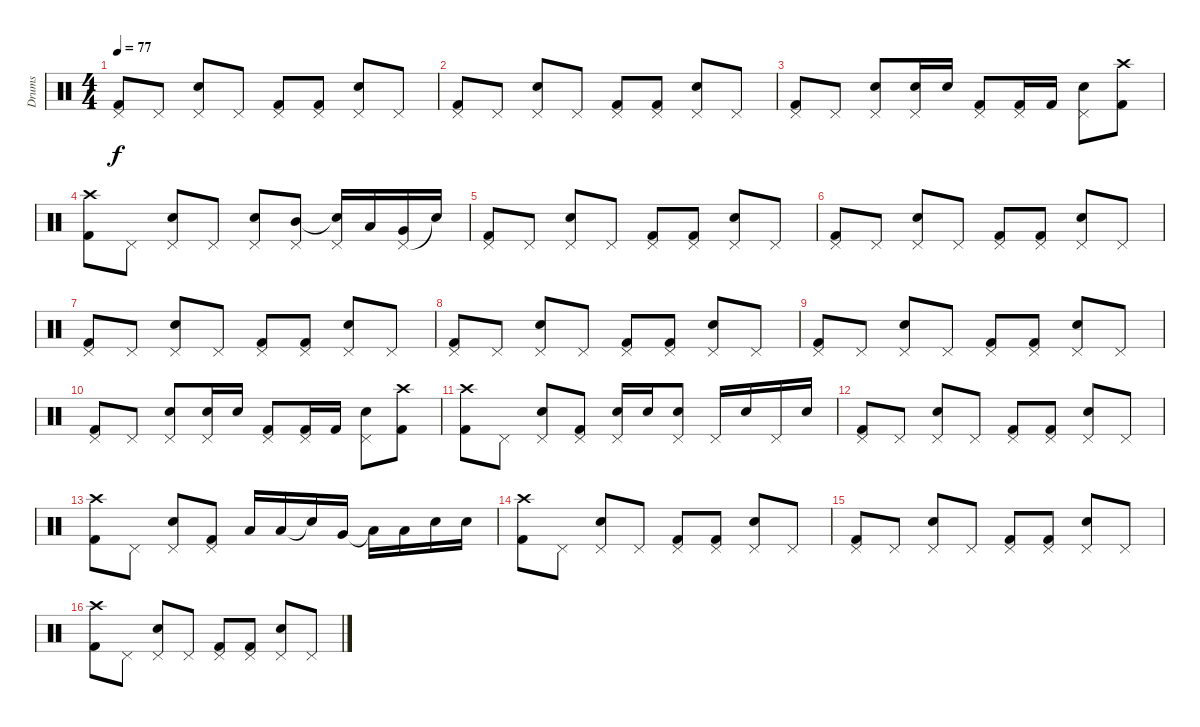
\track ("Drums" "Drums") {instrument percussion}
\staff {score}
\articulation defaults
\ts (4 4)
\tempo 77
\clef neutral
\ks c
("Pedal Hi-Hat (hit)" "Kick (hit) 2").8{dy f} "Pedal Hi-Hat (hit)".8 ("Pedal Hi-Hat (hit)" "Electric Snare (hit)").8 "Pedal Hi-Hat (hit)".8 ("Pedal Hi-Hat (hit)" "Kick (hit) 2").8 ("Pedal Hi-Hat (hit)" "Kick (hit) 2").8 ("Pedal Hi-Hat (hit)" "Electric Snare (hit)").8 "Pedal Hi-Hat (hit)".8 |
("Pedal Hi-Hat (hit)" "Kick (hit) 2").8 "Pedal Hi-Hat (hit)".8 ("Pedal Hi-Hat (hit)" "Electric Snare (hit)").8 "Pedal Hi-Hat (hit)".8 ("Pedal Hi-Hat (hit)" "Kick (hit) 2").8 ("Pedal Hi-Hat (hit)" "Kick (hit) 2").8 ("Pedal Hi-Hat (hit)" "Electric Snare (hit)").8 "Pedal Hi-Hat (hit)".8 |
("Pedal Hi-Hat (hit)" "Kick (hit) 2").8 "Pedal Hi-Hat (hit)".8 ("Pedal Hi-Hat (hit)" "Electric Snare (hit)").8 ("Pedal Hi-Hat (hit)" "Electric Snare (hit)").16 "Electric Snare (hit)".16 ("Pedal Hi-Hat (hit)" "Kick (hit) 2").8 ("Pedal Hi-Hat (hit)" "Kick (hit) 2").16 "Kick (hit) 2".16 ("Pedal Hi-Hat (hit)" "Electric Snare (hit)").8 ("Crash high (hit)" "Kick (hit) 2").8 |
("Crash high (hit)" "Kick (hit) 2").8 "Pedal Hi-Hat (hit)".8 ("Pedal Hi-Hat (hit)" "Electric Snare (hit)").8 "Pedal Hi-Hat (hit)".8 ("Pedal Hi-Hat (hit)" "Electric Snare (hit)").8 ("Pedal Hi-Hat (hit)" "Mid Tom (hit)").8 ("Pedal Hi-Hat (hit)" "Snare (hit)"{t}).16 "Low Tom (hit)".16 ("Pedal Hi-Hat (hit)" "Very Low Tom (hit)").16 "Snare (hit)"{t}.16 |
("Pedal Hi-Hat (hit)" "Kick (hit) 2").8 "Pedal Hi-Hat (hit)".8 ("Pedal Hi-Hat (hit)" "Electric Snare (hit)").8 "Pedal Hi-Hat (hit)".8 ("Pedal Hi-Hat (hit)" "Kick (hit) 2").8 ("Pedal Hi-Hat (hit)" "Kick (hit) 2").8 ("Pedal Hi-Hat (hit)" "Electric Snare (hit)").8 "Pedal Hi-Hat (hit)".8 |
("Pedal Hi-Hat (hit)" "Kick (hit) 2").8 "Pedal Hi-Hat (hit)".8 ("Pedal Hi-Hat (hit)" "Electric Snare (hit)").8 "Pedal Hi-Hat (hit)".8 ("Pedal Hi-Hat (hit)" "Kick (hit) 2").8 ("Pedal Hi-Hat (hit)" "Kick (hit) 2").8 ("Pedal Hi-Hat (hit)" "Electric Snare (hit)").8 "Pedal Hi-Hat (hit)".8 |
("Pedal Hi-Hat (hit)" "Kick (hit) 2").8 "Pedal Hi-Hat (hit)".8 ("Pedal Hi-Hat (hit)" "Electric Snare (hit)").8 "Pedal Hi-Hat (hit)".8 ("Pedal Hi-Hat (hit)" "Kick (hit) 2").8 ("Pedal Hi-Hat (hit)" "Kick (hit) 2").8 ("Pedal Hi-Hat (hit)" "Electric Snare (hit)").8 "Pedal Hi-Hat (hit)".8 |
("Pedal Hi-Hat (hit)" "Kick (hit) 2").8 "Pedal Hi-Hat (hit)".8 ("Pedal Hi-Hat (hit)" "Electric Snare (hit)").8 "Pedal Hi-Hat (hit)".8 ("Pedal Hi-Hat (hit)" "Kick (hit) 2").8 ("Pedal Hi-Hat (hit)" "Kick (hit) 2").8 ("Pedal Hi-Hat (hit)" "Electric Snare (hit)").8 "Pedal Hi-Hat (hit)".8 |
("Pedal Hi-Hat (hit)" "Kick (hit) 2").8 "Pedal Hi-Hat (hit)".8 ("Pedal Hi-Hat (hit)" "Electric Snare (hit)").8 "Pedal Hi-Hat (hit)".8 ("Pedal Hi-Hat (hit)" "Kick (hit) 2").8 ("Pedal Hi-Hat (hit)" "Kick (hit) 2").8 ("Pedal Hi-Hat (hit)" "Electric Snare (hit)").8 "Pedal Hi-Hat (hit)".8 |
("Pedal Hi-Hat (hit)" "Kick (hit) 2").8 "Pedal Hi-Hat (hit)".8 ("Pedal Hi-Hat (hit)" "Electric Snare (hit)").8 ("Pedal Hi-Hat (hit)" "Electric Snare (hit)").16 "Electric Snare (hit)".16 ("Pedal Hi-Hat (hit)" "Kick (hit) 2").8 ("Pedal Hi-Hat (hit)" "Kick (hit) 2").16 "Kick (hit) 2".16 ("Pedal Hi-Hat (hit)" "Electric Snare (hit)").8 ("Crash high (hit)" "Kick (hit) 2").8 |
("Crash high (hit)" "Kick (hit) 2").8 "Pedal Hi-Hat (hit)".8 ("Pedal Hi-Hat (hit)" "Electric Snare (hit)").8 ("Pedal Hi-Hat (hit)" "Kick (hit) 2").8 ("Pedal Hi-Hat (hit)" "Electric Snare (hit)").16 "Electric Snare (hit)".16 ("Pedal Hi-Hat (hit)" "Electric Snare (hit)").8 "Pedal Hi-Hat (hit)".16 "Electric Snare (hit)".16 "Pedal Hi-Hat (hit)".16 "Electric Snare (hit)".16 |
("Pedal Hi-Hat (hit)" "Kick (hit) 2").8 "Pedal Hi-Hat (hit)".8 ("Pedal Hi-Hat (hit)" "Electric Snare (hit)").8 "Pedal Hi-Hat (hit)".8 ("Pedal Hi-Hat (hit)" "Kick (hit) 2").8 ("Pedal Hi-Hat (hit)" "Kick (hit) 2").8 ("Pedal Hi-Hat (hit)" "Electric Snare (hit)").8 "Pedal Hi-Hat (hit)".8 |
("Crash high (hit)" "Kick (hit) 2").8 "Pedal Hi-Hat (hit)".8 ("Pedal Hi-Hat (hit)" "Electric Snare (hit)").8 ("Pedal Hi-Hat (hit)" "Kick (hit) 2").8 "Low Tom (hit)".16 "Low Tom (hit)".16 "Snare (hit)"{t}.16 "Very Low Tom (hit)".16 "Low Tom (hit)"{t}.16 "Low Tom (hit)".16 "Electric Snare (hit)".16 "Electric Snare (hit)".16 |
("Crash high (hit)" "Kick (hit) 2").8 "Pedal Hi-Hat (hit)".8 ("Pedal Hi-Hat (hit)" "Electric Snare (hit)").8 "Pedal Hi-Hat (hit)".8 ("Pedal Hi-Hat (hit)" "Kick (hit) 2").8 ("Pedal Hi-Hat (hit)" "Kick (hit) 2").8 ("Pedal Hi-Hat (hit)" "Electric Snare (hit)").8 "Pedal Hi-Hat (hit)".8 |
("Pedal Hi-Hat (hit)" "Kick (hit) 2").8 "Pedal Hi-Hat (hit)".8 ("Pedal Hi-Hat (hit)" "Electric Snare (hit)").8 "Pedal Hi-Hat (hit)".8 ("Pedal Hi-Hat (hit)" "Kick (hit) 2").8 ("Pedal Hi-Hat (hit)" "Kick (hit) 2").8 ("Pedal Hi-Hat (hit)" "Electric Snare (hit)").8 "Pedal Hi-Hat (hit)".8 |
("Crash high (hit)" "Kick (hit) 2").8 "Pedal Hi-Hat (hit)".8 ("Pedal Hi-Hat (hit)" "Electric Snare (hit)").8 "Pedal Hi-Hat (hit)".8 ("Pedal Hi-Hat (hit)" "Kick (hit) 2").8 ("Pedal Hi-Hat (hit)" "Kick (hit) 2").8 ("Pedal Hi-Hat (hit)" "Electric Snare (hit)").8 "Pedal Hi-Hat (hit)".8
